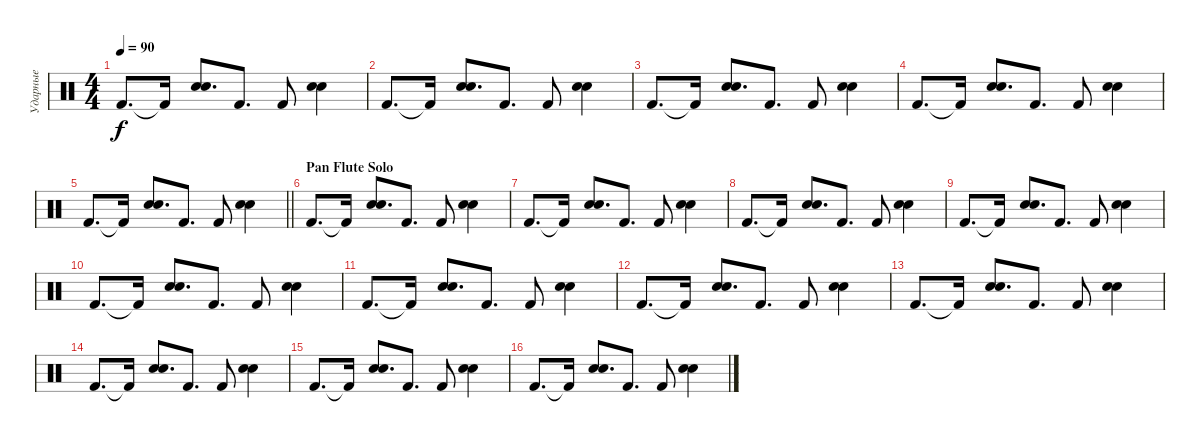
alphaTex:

\track ("Ударные" "Ударные") {instrument percussion}
\staff {score}
\articulation defaults
\ts (4 4)
\tempo 90
\clef neutral
\ks c "Kick (hit) 2".8{d dy f} "Kick (hit) 2"{t}.16
("Hand Clap (hit)" "Snare (hit) 2").8{d} "Kick (hit) 2".8{d} "Kick (hit) 2".8 ("Hand Clap (hit)" "Snare (hit) 2").4 |
"Kick (hit) 2".8{d} "Kick (hit) 2"{t}.16 ("Hand Clap (hit)" "Snare (hit) 2").8{d} "Kick (hit) 2".8{d} "Kick (hit) 2".8 ("Hand Clap (hit)" "Snare (hit) 2").4 |
"Kick (hit) 2".8{d} "Kick (hit) 2"{t}.16 ("Hand Clap (hit)" "Snare (hit) 2").8{d} "Kick (hit) 2".8{d} "Kick (hit) 2".8 ("Hand Clap (hit)" "Snare (hit) 2").4 |
"Kick (hit) 2".8{d} "Kick (hit) 2"{t}.16 ("Hand Clap (hit)" "Snare (hit) 2").8{d} "Kick (hit) 2".8{d} "Kick (hit) 2".8 ("Hand Clap (hit)" "Snare (hit) 2").4 |
\barLineRight lightlight "Kick (hit) 2".8{d} "Kick (hit) 2"{t}.16
("Hand Clap (hit)" "Snare (hit) 2").8{d} "Kick (hit) 2".8{d} "Kick (hit) 2".8 ("Hand Clap (hit)" "Snare (hit) 2").4 |
\section ("" "Pan Flute Solo")
"Kick (hit) 2".8{d} "Kick (hit) 2"{t}.16 ("Hand Clap (hit)" "Snare (hit) 2").8{d} "Kick (hit) 2".8{d} "Kick (hit) 2".8 ("Hand Clap (hit)" "Snare (hit) 2").4 |
"Kick (hit) 2".8{d} "Kick (hit) 2"{t}.16 ("Hand Clap (hit)" "Snare (hit) 2").8{d} "Kick (hit) 2".8{d} "Kick (hit) 2".8 ("Hand Clap (hit)" "Snare (hit) 2").4 |
"Kick (hit) 2".8{d} "Kick (hit) 2"{t}.16 ("Hand Clap (hit)" "Snare (hit) 2").8{d} "Kick (hit) 2".8{d} "Kick (hit) 2".8 ("Hand Clap (hit)" "Snare (hit) 2").4 |
"Kick (hit) 2".8{d} "Kick (hit) 2"{t}.16 ("Hand Clap (hit)" "Snare (hit) 2").8{d} "Kick (hit) 2".8{d} "Kick (hit) 2".8 ("Hand Clap (hit)" "Snare (hit) 2").4 |
"Kick (hit) 2".8{d} "Kick (hit) 2"{t}.16 ("Hand Clap (hit)" "Snare (hit) 2").8{d} "Kick (hit) 2".8{d} "Kick (hit) 2".8 ("Hand Clap (hit)" "Snare (hit) 2").4 |
"Kick (hit) 2".8{d} "Kick (hit) 2"{t}.16 ("Hand Clap (hit)" "Snare (hit) 2").8{d} "Kick (hit) 2".8{d} "Kick (hit) 2".8 ("Hand Clap (hit)" "Snare (hit) 2").4 |
"Kick (hit) 2".8{d} "Kick (hit) 2"{t}.16 ("Hand Clap (hit)" "Snare (hit) 2").8{d} "Kick (hit) 2".8{d} "Kick (hit) 2".8 ("Hand Clap (hit)" "Snare (hit) 2").4 |
"Kick (hit) 2".8{d} "Kick (hit) 2"{t}.16 ("Hand Clap (hit)" "Snare (hit) 2").8{d} "Kick (hit) 2".8{d} "Kick (hit) 2".8 ("Hand Clap (hit)" "Snare (hit) 2").4 |
"Kick (hit) 2".8{d} "Kick (hit) 2"{t}.16 ("Hand Clap (hit)" "Snare (hit) 2").8{d} "Kick (hit) 2".8{d} "Kick (hit) 2".8 ("Hand Clap (hit)" "Snare (hit) 2").4 |
"Kick (hit) 2".8{d} "Kick (hit) 2"{t}.16 ("Hand Clap (hit)" "Snare (hit) 2").8{d} "Kick (hit) 2".8{d} "Kick (hit) 2".8 ("Hand Clap (hit)" "Snare (hit) 2").4 |
"Kick (hit) 2".8{d} "Kick (hit) 2"{t}.16 ("Hand Clap (hit)" "Snare (hit) 2").8{d} "Kick (hit) 2".8{d} "Kick (hit) 2".8 ("Hand Clap (hit)" "Snare (hit) 2").4
